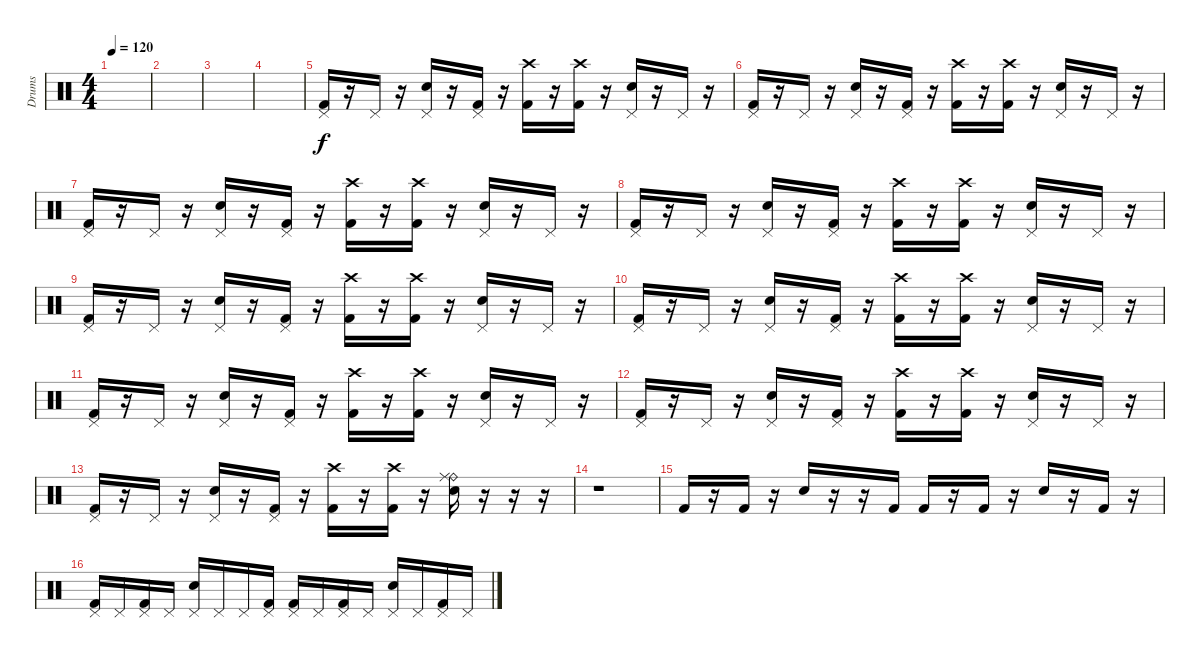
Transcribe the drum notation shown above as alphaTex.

\track ("Drums" "Drums") {instrument percussion}
\staff {score}
\articulation defaults
\ts (4 4)
\tempo 120
\clef neutral
\ks c
|
|
|
|
("Pedal Hi-Hat (hit)" "Kick (hit) 2").16 r.16 "Pedal Hi-Hat (hit)".16 r.16 ("Pedal Hi-Hat (hit)" "Snare (hit) 2").16 r.16 ("Pedal Hi-Hat (hit)" "Kick (hit) 2").16 r.16 ("Crash high (hit)" "Kick (hit) 2").16 r.16 ("Crash high (hit)" "Kick (hit) 2").16 r.16 ("Pedal Hi-Hat (hit)" "Snare (hit) 2").16 r.16 "Pedal Hi-Hat (hit)".16 r.16 |
("Pedal Hi-Hat (hit)" "Kick (hit) 2").16 r.16 "Pedal Hi-Hat (hit)".16 r.16 ("Pedal Hi-Hat (hit)" "Snare (hit) 2").16 r.16 ("Pedal Hi-Hat (hit)" "Kick (hit) 2").16 r.16 ("Crash high (hit)" "Kick (hit) 2").16 r.16 ("Crash high (hit)" "Kick (hit) 2").16 r.16 ("Pedal Hi-Hat (hit)" "Snare (hit) 2").16 r.16 "Pedal Hi-Hat (hit)".16 r.16 |
("Pedal Hi-Hat (hit)" "Kick (hit) 2").16 r.16 "Pedal Hi-Hat (hit)".16 r.16 ("Pedal Hi-Hat (hit)" "Snare (hit) 2").16 r.16 ("Pedal Hi-Hat (hit)" "Kick (hit) 2").16 r.16 ("Crash high (hit)" "Kick (hit) 2").16 r.16 ("Crash high (hit)" "Kick (hit) 2").16 r.16 ("Pedal Hi-Hat (hit)" "Snare (hit) 2").16 r.16 "Pedal Hi-Hat (hit)".16 r.16 |
("Pedal Hi-Hat (hit)" "Kick (hit) 2").16 r.16 "Pedal Hi-Hat (hit)".16 r.16 ("Pedal Hi-Hat (hit)" "Snare (hit) 2").16 r.16 ("Pedal Hi-Hat (hit)" "Kick (hit) 2").16 r.16 ("Crash high (hit)" "Kick (hit) 2").16 r.16 ("Crash high (hit)" "Kick (hit) 2").16 r.16 ("Pedal Hi-Hat (hit)" "Snare (hit) 2").16 r.16 "Pedal Hi-Hat (hit)".16 r.16 |
("Pedal Hi-Hat (hit)" "Kick (hit) 2").16 r.16 "Pedal Hi-Hat (hit)".16 r.16 ("Pedal Hi-Hat (hit)" "Snare (hit) 2").16 r.16 ("Pedal Hi-Hat (hit)" "Kick (hit) 2").16 r.16 ("Crash high (hit)" "Kick (hit) 2").16 r.16 ("Crash high (hit)" "Kick (hit) 2").16 r.16 ("Pedal Hi-Hat (hit)" "Snare (hit) 2").16 r.16 "Pedal Hi-Hat (hit)".16 r.16 |
("Pedal Hi-Hat (hit)" "Kick (hit) 2").16 r.16 "Pedal Hi-Hat (hit)".16 r.16 ("Pedal Hi-Hat (hit)" "Snare (hit) 2").16 r.16 ("Pedal Hi-Hat (hit)" "Kick (hit) 2").16 r.16 ("Crash high (hit)" "Kick (hit) 2").16 r.16 ("Crash high (hit)" "Kick (hit) 2").16 r.16 ("Pedal Hi-Hat (hit)" "Snare (hit) 2").16 r.16 "Pedal Hi-Hat (hit)".16 r.16 |
("Pedal Hi-Hat (hit)" "Kick (hit) 2").16 r.16 "Pedal Hi-Hat (hit)".16 r.16 ("Pedal Hi-Hat (hit)" "Snare (hit) 2").16 r.16 ("Pedal Hi-Hat (hit)" "Kick (hit) 2").16 r.16 ("Crash high (hit)" "Kick (hit) 2").16 r.16 ("Crash high (hit)" "Kick (hit) 2").16 r.16 ("Pedal Hi-Hat (hit)" "Snare (hit) 2").16 r.16 "Pedal Hi-Hat (hit)".16 r.16 |
("Pedal Hi-Hat (hit)" "Kick (hit) 2").16 r.16 "Pedal Hi-Hat (hit)".16 r.16 ("Pedal Hi-Hat (hit)" "Snare (hit) 2").16 r.16 ("Pedal Hi-Hat (hit)" "Kick (hit) 2").16 r.16 ("Crash high (hit)" "Kick (hit) 2").16 r.16 ("Crash high (hit)" "Kick (hit) 2").16 r.16 ("Pedal Hi-Hat (hit)" "Snare (hit) 2").16 r.16 "Pedal Hi-Hat (hit)".16 r.16 |
("Pedal Hi-Hat (hit)" "Kick (hit) 2").16 r.16 "Pedal Hi-Hat (hit)".16 r.16 ("Pedal Hi-Hat (hit)" "Snare (hit) 2").16 r.16 ("Pedal Hi-Hat (hit)" "Kick (hit) 2").16 r.16 ("Crash high (hit)" "Kick (hit) 2").16 r.16 ("Crash high (hit)" "Kick (hit) 2").16 r.16 ("Ride (bell)" "Ride (middle)" "Snare (hit) 2").16 r.16 r.16 r.16 |
r.1 |
"Kick (hit) 2".16 r.16 "Kick (hit) 2".16 r.16 "Snare (hit) 2".16 r.16 r.16 "Kick (hit) 2".16 "Kick (hit) 2".16 r.16 "Kick (hit) 2".16 r.16 "Snare (hit) 2".16 r.16 "Kick (hit) 2".16 r.16 |
("Pedal Hi-Hat (hit)" "Kick (hit) 2").16 "Pedal Hi-Hat (hit)".16 ("Pedal Hi-Hat (hit)" "Kick (hit) 2").16 "Pedal Hi-Hat (hit)".16 ("Pedal Hi-Hat (hit)" "Snare (hit) 2").16 "Pedal Hi-Hat (hit)".16 "Pedal Hi-Hat (hit)".16 ("Pedal Hi-Hat (hit)" "Kick (hit) 2").16 ("Pedal Hi-Hat (hit)" "Kick (hit) 2").16 "Pedal Hi-Hat (hit)".16 ("Pedal Hi-Hat (hit)" "Kick (hit) 2").16 "Pedal Hi-Hat (hit)".16 ("Pedal Hi-Hat (hit)" "Snare (hit) 2").16 "Pedal Hi-Hat (hit)".16 ("Pedal Hi-Hat (hit)" "Kick (hit) 2").16 "Pedal Hi-Hat (hit)".16
